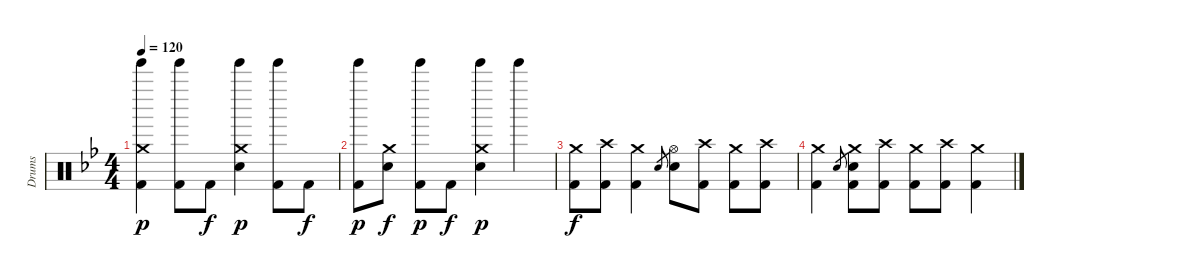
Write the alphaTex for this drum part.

\track ("Drums" "Drums") {instrument percussion}
\staff {score}
\articulation defaults
\ts (4 4)
\tempo 120
\clef neutral
\ks bb
("Tinkle Bell (hit)" "Crash medium (hit)" "Kick (hit) 2").4{dy p} ("Tinkle Bell (hit)" "Kick (hit) 2").8 "Kick (hit) 2".8{dy f} ("Tinkle Bell (hit)" "Snare (hit) 2" "Crash medium (hit)").4{dy p} ("Tinkle Bell (hit)" "Kick (hit) 2").8 "Kick (hit) 2".8{dy f} |
("Tinkle Bell (hit)" "Kick (hit) 2").8{dy p} ("Snare (hit) 2" "Crash medium (hit)").8{dy f} ("Tinkle Bell (hit)" "Kick (hit) 2").8{dy p} "Kick (hit) 2".8{dy f} ("Tinkle Bell (hit)" "Snare (hit) 2" "Crash medium (hit)").4{dy p} "Tinkle Bell (hit)".4 |
("Crash medium (hit)" "Kick (hit) 2").8{dy f} ("Crash high (hit)" "Kick (hit) 2").8 ("Crash medium (hit)" "Kick (hit) 2").4 "Snare (hit) 2".8{gr} ("Snare (hit) 2" "Hi-Hat (open)").8 ("Crash high (hit)" "Kick (hit) 2").8 ("Crash medium (hit)" "Kick (hit) 2").8 ("Crash high (hit)" "Kick (hit) 2").8 |
("Crash medium (hit)" "Kick (hit) 2").4 "Snare (hit) 2".8{gr} ("Snare (hit) 2" "Crash medium (hit)" "Kick (hit) 2").8 ("Crash high (hit)" "Kick (hit) 2").8 ("Crash medium (hit)" "Kick (hit) 2").8 ("Crash high (hit)" "Kick (hit) 2").8 ("Crash medium (hit)" "Kick (hit) 2").4
